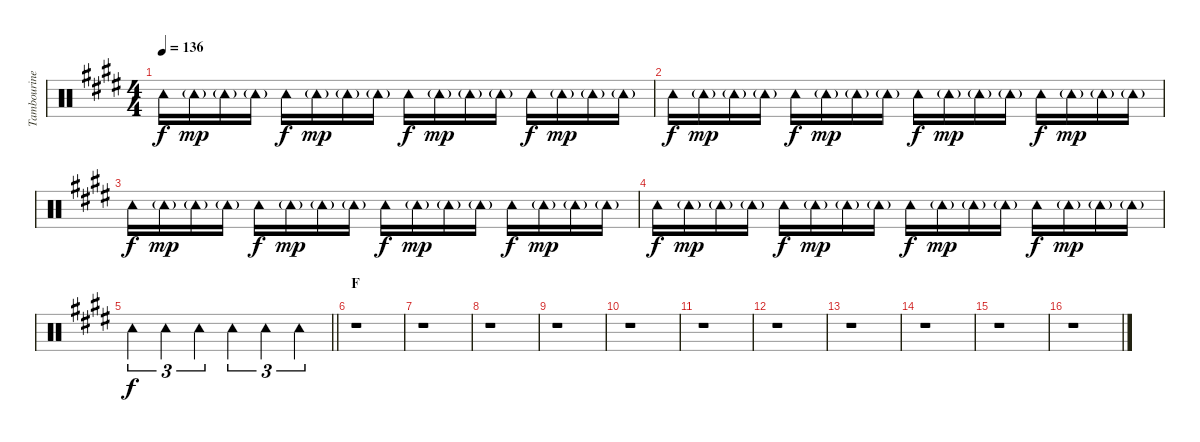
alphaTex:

\track ("Tambourine" "Tambourine") {instrument percussion}
\staff {score}
\articulation defaults
\ts (4 4)
\tempo 136
\clef neutral
\ks e "Tambourine (hit)".16{dy f} "Tambourine (hit)"{g}.16{dy mp} "Tambourine (hit)"{g}.16 "Tambourine (hit)"{g}.16 "Tambourine (hit)".16{dy f} "Tambourine (hit)"{g}.16{dy mp} "Tambourine (hit)"{g}.16 "Tambourine (hit)"{g}.16 "Tambourine (hit)".16{dy f} "Tambourine (hit)"{g}.16{dy mp} "Tambourine (hit)"{g}.16 "Tambourine (hit)"{g}.16 "Tambourine (hit)".16{dy f} "Tambourine (hit)"{g}.16{dy mp} "Tambourine (hit)"{g}.16 "Tambourine (hit)"{g}.16
|
"Tambourine (hit)".16{dy f} "Tambourine (hit)"{g}.16{dy mp} "Tambourine (hit)"{g}.16 "Tambourine (hit)"{g}.16 "Tambourine (hit)".16{dy f} "Tambourine (hit)"{g}.16{dy mp} "Tambourine (hit)"{g}.16 "Tambourine (hit)"{g}.16 "Tambourine (hit)".16{dy f} "Tambourine (hit)"{g}.16{dy mp} "Tambourine (hit)"{g}.16 "Tambourine (hit)"{g}.16 "Tambourine (hit)".16{dy f} "Tambourine (hit)"{g}.16{dy mp} "Tambourine (hit)"{g}.16 "Tambourine (hit)"{g}.16 |
"Tambourine (hit)".16{dy f} "Tambourine (hit)"{g}.16{dy mp} "Tambourine (hit)"{g}.16 "Tambourine (hit)"{g}.16 "Tambourine (hit)".16{dy f} "Tambourine (hit)"{g}.16{dy mp} "Tambourine (hit)"{g}.16 "Tambourine (hit)"{g}.16 "Tambourine (hit)".16{dy f} "Tambourine (hit)"{g}.16{dy mp} "Tambourine (hit)"{g}.16 "Tambourine (hit)"{g}.16 "Tambourine (hit)".16{dy f} "Tambourine (hit)"{g}.16{dy mp} "Tambourine (hit)"{g}.16 "Tambourine (hit)"{g}.16 |
"Tambourine (hit)".16{dy f} "Tambourine (hit)"{g}.16{dy mp} "Tambourine (hit)"{g}.16 "Tambourine (hit)"{g}.16 "Tambourine (hit)".16{dy f} "Tambourine (hit)"{g}.16{dy mp} "Tambourine (hit)"{g}.16 "Tambourine (hit)"{g}.16 "Tambourine (hit)".16{dy f} "Tambourine (hit)"{g}.16{dy mp} "Tambourine (hit)"{g}.16 "Tambourine (hit)"{g}.16 "Tambourine (hit)".16{dy f} "Tambourine (hit)"{g}.16{dy mp} "Tambourine (hit)"{g}.16 "Tambourine (hit)"{g}.16 |
\barLineRight lightlight "Tambourine (hit)".4{tu (3 2) dy f} "Tambourine (hit)".4{tu (3 2)} "Tambourine (hit)".4{tu (3 2)} "Tambourine (hit)".4{tu (3 2)} "Tambourine (hit)".4{tu (3 2)} "Tambourine (hit)".4{tu (3 2)}
|
\section ("" "F")
r.1 |
r.1 |
r.1 |
r.1 |
r.1 |
r.1 |
r.1 |
r.1 |
r.1 |
r.1 |
r.1
